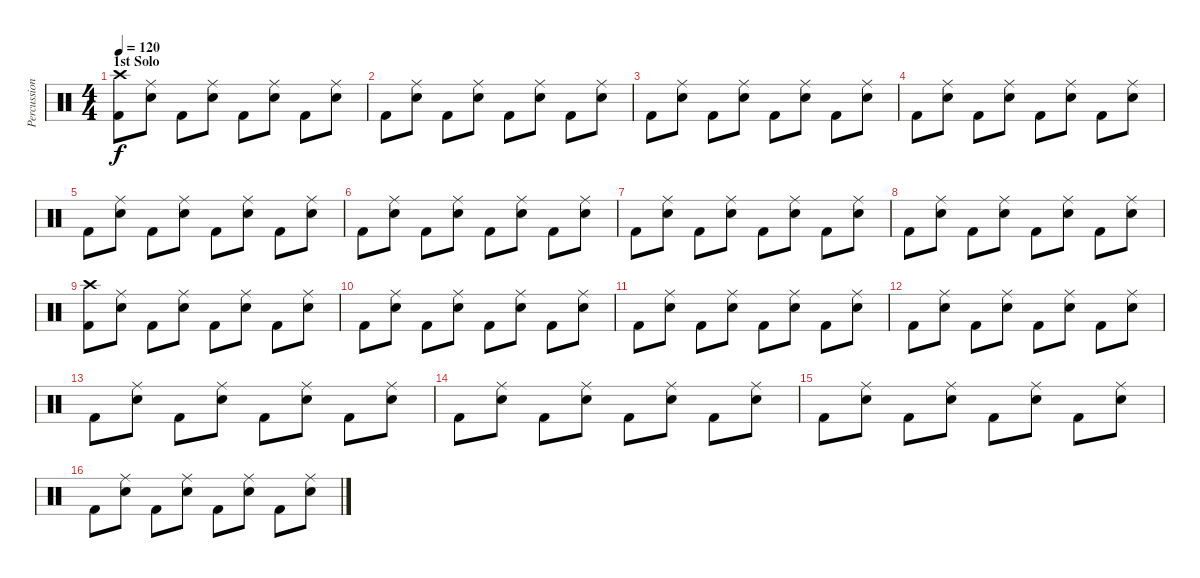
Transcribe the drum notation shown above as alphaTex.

\track ("Percussioni" "Percussion") {instrument percussion}
\staff {score}
\articulation defaults
\ts (4 4)
\section ("" "1st Solo")
\tempo 120
\clef neutral
\ks c
("Crash high (hit)" "Kick (hit) 2").8{dy f} ("Ride (middle)" "Electric Snare (hit)").8 "Kick (hit) 2".8 ("Ride (middle)" "Electric Snare (hit)").8 "Kick (hit) 2".8 ("Ride (middle)" "Electric Snare (hit)").8 "Kick (hit) 2".8 ("Ride (middle)" "Electric Snare (hit)").8 |
"Kick (hit) 2".8 ("Ride (middle)" "Electric Snare (hit)").8 "Kick (hit) 2".8 ("Ride (middle)" "Electric Snare (hit)").8 "Kick (hit) 2".8 ("Ride (middle)" "Electric Snare (hit)").8 "Kick (hit) 2".8 ("Ride (middle)" "Electric Snare (hit)").8 |
"Kick (hit) 2".8 ("Ride (middle)" "Electric Snare (hit)").8 "Kick (hit) 2".8 ("Ride (middle)" "Electric Snare (hit)").8 "Kick (hit) 2".8 ("Ride (middle)" "Electric Snare (hit)").8 "Kick (hit) 2".8 ("Ride (middle)" "Electric Snare (hit)").8 |
"Kick (hit) 2".8 ("Ride (middle)" "Electric Snare (hit)").8 "Kick (hit) 2".8 ("Ride (middle)" "Electric Snare (hit)").8 "Kick (hit) 2".8 ("Ride (middle)" "Electric Snare (hit)").8 "Kick (hit) 2".8 ("Ride (middle)" "Electric Snare (hit)").8 |
"Kick (hit) 2".8 ("Ride (middle)" "Electric Snare (hit)").8 "Kick (hit) 2".8 ("Ride (middle)" "Electric Snare (hit)").8 "Kick (hit) 2".8 ("Ride (middle)" "Electric Snare (hit)").8 "Kick (hit) 2".8 ("Ride (middle)" "Electric Snare (hit)").8 |
"Kick (hit) 2".8 ("Ride (middle)" "Electric Snare (hit)").8 "Kick (hit) 2".8 ("Ride (middle)" "Electric Snare (hit)").8 "Kick (hit) 2".8 ("Ride (middle)" "Electric Snare (hit)").8 "Kick (hit) 2".8 ("Ride (middle)" "Electric Snare (hit)").8 |
"Kick (hit) 2".8 ("Ride (middle)" "Electric Snare (hit)").8 "Kick (hit) 2".8 ("Ride (middle)" "Electric Snare (hit)").8 "Kick (hit) 2".8 ("Ride (middle)" "Electric Snare (hit)").8 "Kick (hit) 2".8 ("Ride (middle)" "Electric Snare (hit)").8 |
"Kick (hit) 2".8 ("Ride (middle)" "Electric Snare (hit)").8 "Kick (hit) 2".8 ("Ride (middle)" "Electric Snare (hit)").8 "Kick (hit) 2".8 ("Ride (middle)" "Electric Snare (hit)").8 "Kick (hit) 2".8 ("Ride (middle)" "Electric Snare (hit)").8 |
("Crash high (hit)" "Kick (hit) 2").8 ("Ride (middle)" "Electric Snare (hit)").8 "Kick (hit) 2".8 ("Ride (middle)" "Electric Snare (hit)").8 "Kick (hit) 2".8 ("Ride (middle)" "Electric Snare (hit)").8 "Kick (hit) 2".8 ("Ride (middle)" "Electric Snare (hit)").8 |
"Kick (hit) 2".8 ("Ride (middle)" "Electric Snare (hit)").8 "Kick (hit) 2".8 ("Ride (middle)" "Electric Snare (hit)").8 "Kick (hit) 2".8 ("Ride (middle)" "Electric Snare (hit)").8 "Kick (hit) 2".8 ("Ride (middle)" "Electric Snare (hit)").8 |
"Kick (hit) 2".8 ("Ride (middle)" "Electric Snare (hit)").8 "Kick (hit) 2".8 ("Ride (middle)" "Electric Snare (hit)").8 "Kick (hit) 2".8 ("Ride (middle)" "Electric Snare (hit)").8 "Kick (hit) 2".8 ("Ride (middle)" "Electric Snare (hit)").8 |
"Kick (hit) 2".8 ("Ride (middle)" "Electric Snare (hit)").8 "Kick (hit) 2".8 ("Ride (middle)" "Electric Snare (hit)").8 "Kick (hit) 2".8 ("Ride (middle)" "Electric Snare (hit)").8 "Kick (hit) 2".8 ("Ride (middle)" "Electric Snare (hit)").8 |
"Kick (hit) 2".8 ("Ride (middle)" "Electric Snare (hit)").8 "Kick (hit) 2".8 ("Ride (middle)" "Electric Snare (hit)").8 "Kick (hit) 2".8 ("Ride (middle)" "Electric Snare (hit)").8 "Kick (hit) 2".8 ("Ride (middle)" "Electric Snare (hit)").8 |
"Kick (hit) 2".8 ("Ride (middle)" "Electric Snare (hit)").8 "Kick (hit) 2".8 ("Ride (middle)" "Electric Snare (hit)").8 "Kick (hit) 2".8 ("Ride (middle)" "Electric Snare (hit)").8 "Kick (hit) 2".8 ("Ride (middle)" "Electric Snare (hit)").8 |
"Kick (hit) 2".8 ("Ride (middle)" "Electric Snare (hit)").8 "Kick (hit) 2".8 ("Ride (middle)" "Electric Snare (hit)").8 "Kick (hit) 2".8 ("Ride (middle)" "Electric Snare (hit)").8 "Kick (hit) 2".8 ("Ride (middle)" "Electric Snare (hit)").8 |
"Kick (hit) 2".8 ("Ride (middle)" "Electric Snare (hit)").8 "Kick (hit) 2".8 ("Ride (middle)" "Electric Snare (hit)").8 "Kick (hit) 2".8 ("Ride (middle)" "Electric Snare (hit)").8 "Kick (hit) 2".8 ("Ride (middle)" "Electric Snare (hit)").8
